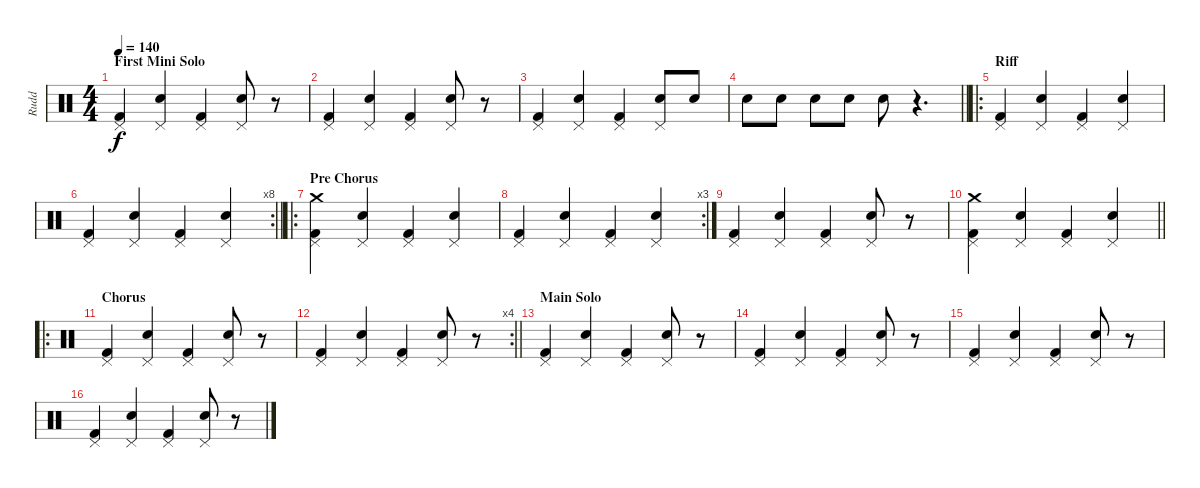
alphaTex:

\track ("Rudd" "Rudd") {instrument percussion}
\staff {score}
\articulation defaults
\ts (4 4)
\section ("" "First Mini Solo")
\tempo 140
\clef neutral
\ks c
("Kick (hit) 2" "Pedal Hi-Hat (hit)").4{dy f} ("Snare (hit) 2" "Pedal Hi-Hat (hit)").4 ("Kick (hit) 2" "Pedal Hi-Hat (hit)").4 ("Snare (hit) 2" "Pedal Hi-Hat (hit)").8 r.8 |
("Kick (hit) 2" "Pedal Hi-Hat (hit)").4 ("Snare (hit) 2" "Pedal Hi-Hat (hit)").4 ("Kick (hit) 2" "Pedal Hi-Hat (hit)").4 ("Snare (hit) 2" "Pedal Hi-Hat (hit)").8 r.8 |
("Kick (hit) 2" "Pedal Hi-Hat (hit)").4 ("Snare (hit) 2" "Pedal Hi-Hat (hit)").4 ("Kick (hit) 2" "Pedal Hi-Hat (hit)").4 ("Snare (hit) 2" "Pedal Hi-Hat (hit)").8 "Snare (hit) 2".8 |
\barLineRight lightlight "Snare (hit) 2".8 "Snare (hit) 2".8 "Snare (hit) 2".8 "Snare (hit) 2".8 "Snare (hit) 2".8
r.4{d} |
\ro
\section ("" "Riff")
("Kick (hit) 2" "Pedal Hi-Hat (hit)").4 ("Snare (hit) 2" "Pedal Hi-Hat (hit)").4 ("Kick (hit) 2" "Pedal Hi-Hat (hit)").4 ("Snare (hit) 2" "Pedal Hi-Hat (hit)").4 |
\rc 8
\barLineRight lightlight
("Kick (hit) 2" "Pedal Hi-Hat (hit)").4 ("Snare (hit) 2" "Pedal Hi-Hat (hit)").4 ("Kick (hit) 2" "Pedal Hi-Hat (hit)").4 ("Snare (hit) 2" "Pedal Hi-Hat (hit)").4 |
\ro
\section ("" "Pre Chorus")
("Kick (hit) 2" "Pedal Hi-Hat (hit)" "Crash medium (hit)").4 ("Snare (hit) 2" "Pedal Hi-Hat (hit)").4 ("Kick (hit) 2" "Pedal Hi-Hat (hit)").4 ("Snare (hit) 2" "Pedal Hi-Hat (hit)").4 |
\rc 3
("Kick (hit) 2" "Pedal Hi-Hat (hit)").4 ("Snare (hit) 2" "Pedal Hi-Hat (hit)").4 ("Kick (hit) 2" "Pedal Hi-Hat (hit)").4 ("Snare (hit) 2" "Pedal Hi-Hat (hit)").4 |
("Kick (hit) 2" "Pedal Hi-Hat (hit)").4 ("Snare (hit) 2" "Pedal Hi-Hat (hit)").4 ("Kick (hit) 2" "Pedal Hi-Hat (hit)").4 ("Snare (hit) 2" "Pedal Hi-Hat (hit)").8 r.8 |
\barLineRight lightlight
("Kick (hit) 2" "Pedal Hi-Hat (hit)" "Crash medium (hit)").4 ("Snare (hit) 2" "Pedal Hi-Hat (hit)").4 ("Kick (hit) 2" "Pedal Hi-Hat (hit)").4 ("Snare (hit) 2" "Pedal Hi-Hat (hit)").4 |
\ro
\section ("" "Chorus")
("Kick (hit) 2" "Pedal Hi-Hat (hit)").4 ("Snare (hit) 2" "Pedal Hi-Hat (hit)").4 ("Kick (hit) 2" "Pedal Hi-Hat (hit)").4 ("Snare (hit) 2" "Pedal Hi-Hat (hit)").8 r.8 |
\rc 4
\barLineRight lightlight
("Kick (hit) 2" "Pedal Hi-Hat (hit)").4 ("Snare (hit) 2" "Pedal Hi-Hat (hit)").4 ("Kick (hit) 2" "Pedal Hi-Hat (hit)").4 ("Snare (hit) 2" "Pedal Hi-Hat (hit)").8 r.8 |
\section ("" "Main Solo")
("Kick (hit) 2" "Pedal Hi-Hat (hit)").4 ("Snare (hit) 2" "Pedal Hi-Hat (hit)").4 ("Kick (hit) 2" "Pedal Hi-Hat (hit)").4 ("Snare (hit) 2" "Pedal Hi-Hat (hit)").8 r.8 |
("Kick (hit) 2" "Pedal Hi-Hat (hit)").4 ("Snare (hit) 2" "Pedal Hi-Hat (hit)").4 ("Kick (hit) 2" "Pedal Hi-Hat (hit)").4 ("Snare (hit) 2" "Pedal Hi-Hat (hit)").8 r.8 |
("Kick (hit) 2" "Pedal Hi-Hat (hit)").4 ("Snare (hit) 2" "Pedal Hi-Hat (hit)").4 ("Kick (hit) 2" "Pedal Hi-Hat (hit)").4 ("Snare (hit) 2" "Pedal Hi-Hat (hit)").8 r.8 |
("Kick (hit) 2" "Pedal Hi-Hat (hit)").4 ("Snare (hit) 2" "Pedal Hi-Hat (hit)").4 ("Kick (hit) 2" "Pedal Hi-Hat (hit)").4 ("Snare (hit) 2" "Pedal Hi-Hat (hit)").8 r.8
